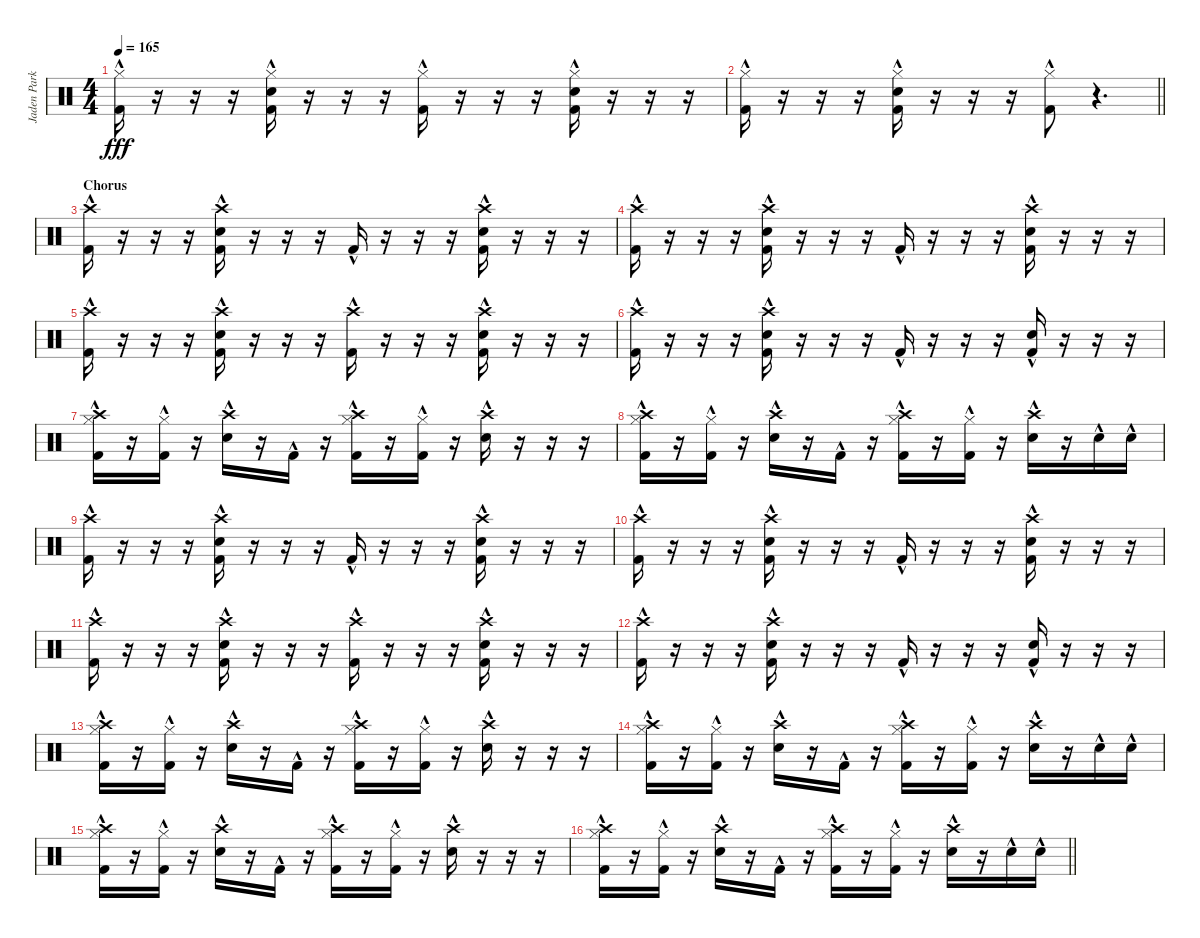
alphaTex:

\track ("Jaden Parkes" "Jaden Park") {instrument percussion}
\staff {score}
\articulation defaults
\ts (4 4)
\tempo 165
\clef neutral
\ks c
("Hi-Hat (closed)" "Kick (hit) 2"{hac}).16{dy fff} r.16 r.16 r.16 ("Hi-Hat (closed)"{hac} "Electric Snare (hit)" "Kick (hit) 2"{hac}).16 r.16 r.16 r.16 ("Hi-Hat (closed)" "Kick (hit) 2"{hac}).16 r.16 r.16 r.16 ("Hi-Hat (closed)"{hac} "Electric Snare (hit)" "Kick (hit) 2"{hac}).16 r.16 r.16 r.16 |
\barLineRight lightlight
("Hi-Hat (closed)" "Kick (hit) 2"{hac}).16 r.16 r.16 r.16 ("Hi-Hat (closed)"{hac} "Electric Snare (hit)" "Kick (hit) 2"{hac}).16 r.16 r.16 r.16 ("Hi-Hat (closed)" "Kick (hit) 2"{hac}).8 r.4{d} |
\section ("" "Chorus")
("Crash high (hit)" "Kick (hit) 2"{hac}).16 r.16 r.16 r.16 ("Crash high (hit)"{hac} "Electric Snare (hit)" "Kick (hit) 2"{hac}).16 r.16 r.16 r.16 "Kick (hit) 2"{hac}.16 r.16 r.16 r.16 ("Crash high (hit)"{hac} "Electric Snare (hit)" "Kick (hit) 2"{hac}).16 r.16 r.16 r.16 |
("Crash high (hit)" "Kick (hit) 2"{hac}).16 r.16 r.16 r.16 ("Crash high (hit)"{hac} "Electric Snare (hit)" "Kick (hit) 2"{hac}).16 r.16 r.16 r.16 "Kick (hit) 2"{hac}.16 r.16 r.16 r.16 ("Crash high (hit)"{hac} "Electric Snare (hit)" "Kick (hit) 2"{hac}).16 r.16 r.16 r.16 |
("Crash high (hit)" "Kick (hit) 2"{hac}).16 r.16 r.16 r.16 ("Crash high (hit)"{hac} "Electric Snare (hit)" "Kick (hit) 2"{hac}).16 r.16 r.16 r.16 ("Crash high (hit)" "Kick (hit) 2"{hac}).16 r.16 r.16 r.16 ("Crash high (hit)"{hac} "Electric Snare (hit)" "Kick (hit) 2"{hac}).16 r.16 r.16 r.16 |
("Crash high (hit)" "Kick (hit) 2"{hac}).16 r.16 r.16 r.16 ("Crash high (hit)"{hac} "Electric Snare (hit)" "Kick (hit) 2"{hac}).16 r.16 r.16 r.16 "Kick (hit) 2"{hac}.16 r.16 r.16 r.16 ("Electric Snare (hit)" "Kick (hit) 2"{hac}).16 r.16 r.16 r.16 |
("Hi-Hat (closed)"{hac} "Crash high (hit)" "Kick (hit) 2"{hac}).16 r.16 ("Hi-Hat (closed)"{hac} "Kick (hit) 2"{hac}).16 r.16 ("Crash high (hit)"{hac} "Electric Snare (hit)"{hac}).16 r.16 "Kick (hit) 2"{hac}.16 r.16 ("Hi-Hat (closed)"{hac} "Crash high (hit)" "Kick (hit) 2"{hac}).16 r.16 ("Hi-Hat (closed)"{hac} "Kick (hit) 2"{hac}).16 r.16 ("Crash high (hit)"{hac} "Electric Snare (hit)"{hac}).16 r.16 r.16 r.16 |
("Hi-Hat (closed)"{hac} "Crash high (hit)" "Kick (hit) 2"{hac}).16 r.16 ("Hi-Hat (closed)"{hac} "Kick (hit) 2"{hac}).16 r.16 ("Crash high (hit)"{hac} "Electric Snare (hit)"{hac}).16 r.16 "Kick (hit) 2"{hac}.16 r.16 ("Hi-Hat (closed)"{hac} "Crash high (hit)" "Kick (hit) 2"{hac}).16 r.16 ("Hi-Hat (closed)"{hac} "Kick (hit) 2"{hac}).16 r.16 ("Crash high (hit)"{hac} "Electric Snare (hit)"{hac}).16 r.16 "Electric Snare (hit)"{hac}.16 "Electric Snare (hit)"{hac}.16 |
("Crash high (hit)" "Kick (hit) 2"{hac}).16 r.16 r.16 r.16 ("Crash high (hit)"{hac} "Electric Snare (hit)" "Kick (hit) 2"{hac}).16 r.16 r.16 r.16 "Kick (hit) 2"{hac}.16 r.16 r.16 r.16 ("Crash high (hit)"{hac} "Electric Snare (hit)" "Kick (hit) 2"{hac}).16 r.16 r.16 r.16 |
("Crash high (hit)" "Kick (hit) 2"{hac}).16 r.16 r.16 r.16 ("Crash high (hit)"{hac} "Electric Snare (hit)" "Kick (hit) 2"{hac}).16 r.16 r.16 r.16 "Kick (hit) 2"{hac}.16 r.16 r.16 r.16 ("Crash high (hit)"{hac} "Electric Snare (hit)" "Kick (hit) 2"{hac}).16 r.16 r.16 r.16 |
("Crash high (hit)" "Kick (hit) 2"{hac}).16 r.16 r.16 r.16 ("Crash high (hit)"{hac} "Electric Snare (hit)" "Kick (hit) 2"{hac}).16 r.16 r.16 r.16 ("Crash high (hit)" "Kick (hit) 2"{hac}).16 r.16 r.16 r.16 ("Crash high (hit)"{hac} "Electric Snare (hit)" "Kick (hit) 2"{hac}).16 r.16 r.16 r.16 |
("Crash high (hit)" "Kick (hit) 2"{hac}).16 r.16 r.16 r.16 ("Crash high (hit)"{hac} "Electric Snare (hit)" "Kick (hit) 2"{hac}).16 r.16 r.16 r.16 "Kick (hit) 2"{hac}.16 r.16 r.16 r.16 ("Electric Snare (hit)" "Kick (hit) 2"{hac}).16 r.16 r.16 r.16 |
("Hi-Hat (closed)"{hac} "Crash high (hit)" "Kick (hit) 2"{hac}).16 r.16 ("Hi-Hat (closed)"{hac} "Kick (hit) 2"{hac}).16 r.16 ("Crash high (hit)"{hac} "Electric Snare (hit)"{hac}).16 r.16 "Kick (hit) 2"{hac}.16 r.16 ("Hi-Hat (closed)"{hac} "Crash high (hit)" "Kick (hit) 2"{hac}).16 r.16 ("Hi-Hat (closed)"{hac} "Kick (hit) 2"{hac}).16 r.16 ("Crash high (hit)"{hac} "Electric Snare (hit)"{hac}).16 r.16 r.16 r.16 |
("Hi-Hat (closed)"{hac} "Crash high (hit)" "Kick (hit) 2"{hac}).16 r.16 ("Hi-Hat (closed)"{hac} "Kick (hit) 2"{hac}).16 r.16 ("Crash high (hit)"{hac} "Electric Snare (hit)"{hac}).16 r.16 "Kick (hit) 2"{hac}.16 r.16 ("Hi-Hat (closed)"{hac} "Crash high (hit)" "Kick (hit) 2"{hac}).16 r.16 ("Hi-Hat (closed)"{hac} "Kick (hit) 2"{hac}).16 r.16 ("Crash high (hit)"{hac} "Electric Snare (hit)"{hac}).16 r.16 "Electric Snare (hit)"{hac}.16 "Electric Snare (hit)"{hac}.16 |
("Hi-Hat (closed)"{hac} "Crash high (hit)" "Kick (hit) 2"{hac}).16 r.16 ("Hi-Hat (closed)"{hac} "Kick (hit) 2"{hac}).16 r.16 ("Crash high (hit)"{hac} "Electric Snare (hit)"{hac}).16 r.16 "Kick (hit) 2"{hac}.16 r.16 ("Hi-Hat (closed)"{hac} "Crash high (hit)" "Kick (hit) 2"{hac}).16 r.16 ("Hi-Hat (closed)"{hac} "Kick (hit) 2"{hac}).16 r.16 ("Crash high (hit)"{hac} "Electric Snare (hit)"{hac}).16 r.16 r.16 r.16 |
\barLineRight lightlight
("Hi-Hat (closed)"{hac} "Crash high (hit)" "Kick (hit) 2"{hac}).16 r.16 ("Hi-Hat (closed)"{hac} "Kick (hit) 2"{hac}).16 r.16 ("Crash high (hit)"{hac} "Electric Snare (hit)"{hac}).16 r.16 "Kick (hit) 2"{hac}.16 r.16 ("Hi-Hat (closed)"{hac} "Crash high (hit)" "Kick (hit) 2"{hac}).16 r.16 ("Hi-Hat (closed)"{hac} "Kick (hit) 2"{hac}).16 r.16 ("Crash high (hit)"{hac} "Electric Snare (hit)"{hac}).16 r.16 "Electric Snare (hit)"{hac}.16 "Electric Snare (hit)"{hac}.16
